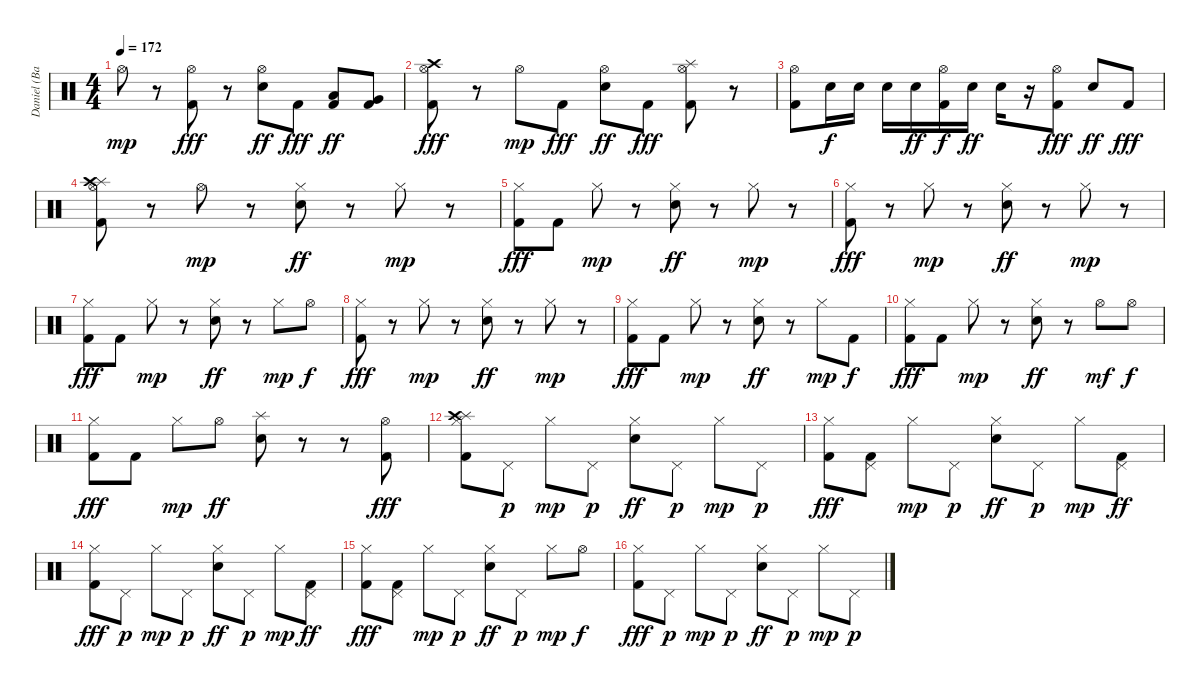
\track ("Daniel (Bateria)" "Daniel (Ba") {instrument percussion}
\staff {score}
\articulation defaults
\ts (4 4)
\tempo 172
\clef neutral
\ks c "Hi-Hat (open)".8{dy mp}
r.8 ("Hi-Hat (open)" "Kick (hit) 2").8{dy fff} r.8 ("Hi-Hat (open)" "Electric Snare (hit)").8{dy ff} "Kick (hit) 2".8{dy fff} ("Low Tom (hit)" "Kick (hit) 2").8{dy ff} ("Very Low Tom (hit)" "Kick (hit) 2").8 |
("Hi-Hat (open)" "Crash high (hit)" "Kick (hit) 2").8{dy fff} r.8 "Hi-Hat (open)".8{dy mp} "Kick (hit) 2".8{dy fff} ("Hi-Hat (open)" "Electric Snare (hit)").8{dy ff} "Kick (hit) 2".8{dy fff} ("Splash (hit)" "Hi-Hat (open)" "Kick (hit) 2").8 r.8 |
("Hi-Hat (open)" "Kick (hit) 2").8 "Electric Snare (hit)".16{dy f} "Electric Snare (hit)".16 "Electric Snare (hit)".16 "Electric Snare (hit)".16{dy ff} ("Hi-Hat (open)" "Kick (hit) 2").16{dy f} "Electric Snare (hit)".16{dy ff} "Electric Snare (hit)".16 r.16 ("Hi-Hat (open)" "Kick (hit) 2").8{dy fff} "Electric Snare (hit)".8{dy ff} "Kick (hit) 2".8{dy fff} |
("Splash (hit)" "Hi-Hat (open)" "Crash high (hit)" "Kick (hit) 2").8 r.8 "Hi-Hat (open)".8{dy mp} r.8 ("Hi-Hat (closed)" "Electric Snare (hit)").8{dy ff} r.8 "Hi-Hat (closed)".8{dy mp} r.8 |
("Hi-Hat (closed)" "Kick (hit) 2").8{dy fff} "Kick (hit) 2".8 "Hi-Hat (closed)".8{dy mp} r.8 ("Hi-Hat (closed)" "Electric Snare (hit)").8{dy ff} r.8 "Hi-Hat (closed)".8{dy mp} r.8 |
("Hi-Hat (closed)" "Kick (hit) 2").8{dy fff} r.8 "Hi-Hat (closed)".8{dy mp} r.8 ("Hi-Hat (closed)" "Electric Snare (hit)").8{dy ff} r.8 "Hi-Hat (closed)".8{dy mp} r.8 |
("Hi-Hat (closed)" "Kick (hit) 2").8{dy fff} "Kick (hit) 2".8 "Hi-Hat (closed)".8{dy mp} r.8 ("Hi-Hat (closed)" "Electric Snare (hit)").8{dy ff} r.8 "Hi-Hat (closed)".8{dy mp} "Hi-Hat (open)".8{dy f} |
("Hi-Hat (closed)" "Kick (hit) 2").8{dy fff} r.8 "Hi-Hat (closed)".8{dy mp} r.8 ("Hi-Hat (closed)" "Electric Snare (hit)").8{dy ff} r.8 "Hi-Hat (closed)".8{dy mp} r.8 |
("Hi-Hat (closed)" "Kick (hit) 2").8{dy fff} "Kick (hit) 2".8 "Hi-Hat (closed)".8{dy mp} r.8 ("Hi-Hat (closed)" "Electric Snare (hit)").8{dy ff} r.8 "Hi-Hat (closed)".8{dy mp} "Kick (hit) 2".8{dy f} |
("Hi-Hat (closed)" "Kick (hit) 2").8{dy fff} "Kick (hit) 2".8 "Hi-Hat (closed)".8{dy mp} r.8 ("Hi-Hat (closed)" "Electric Snare (hit)").8{dy ff} r.8 "Hi-Hat (open)".8{dy mf} "Hi-Hat (open)".8{dy f} |
("Hi-Hat (closed)" "Kick (hit) 2").8{dy fff} "Kick (hit) 2".8 "Hi-Hat (closed)".8{dy mp} "Hi-Hat (open)".8{dy ff} ("Splash (hit)" "Electric Snare (hit)").8 r.8 r.8 ("Hi-Hat (open)" "Kick (hit) 2").8{dy fff} |
("Splash (hit)" "Hi-Hat (closed)" "Crash high (hit)" "Kick (hit) 2").8 "Pedal Hi-Hat (hit)".8{dy p} "Hi-Hat (closed)".8{dy mp} "Pedal Hi-Hat (hit)".8{dy p} ("Hi-Hat (closed)" "Electric Snare (hit)").8{dy ff} "Pedal Hi-Hat (hit)".8{dy p} "Hi-Hat (closed)".8{dy mp} "Pedal Hi-Hat (hit)".8{dy p} |
("Hi-Hat (closed)" "Kick (hit) 2").8{dy fff} ("Pedal Hi-Hat (hit)" "Kick (hit) 2").8 "Hi-Hat (closed)".8{dy mp} "Pedal Hi-Hat (hit)".8{dy p} ("Hi-Hat (closed)" "Electric Snare (hit)").8{dy ff} "Pedal Hi-Hat (hit)".8{dy p} "Hi-Hat (closed)".8{dy mp} ("Pedal Hi-Hat (hit)" "Kick (hit) 2").8{dy ff} |
("Hi-Hat (closed)" "Kick (hit) 2").8{dy fff} "Pedal Hi-Hat (hit)".8{dy p} "Hi-Hat (closed)".8{dy mp} "Pedal Hi-Hat (hit)".8{dy p} ("Hi-Hat (closed)" "Electric Snare (hit)").8{dy ff} "Pedal Hi-Hat (hit)".8{dy p} "Hi-Hat (closed)".8{dy mp} ("Pedal Hi-Hat (hit)" "Kick (hit) 2").8{dy ff} |
("Hi-Hat (closed)" "Kick (hit) 2").8{dy fff} ("Pedal Hi-Hat (hit)" "Kick (hit) 2").8 "Hi-Hat (closed)".8{dy mp} "Pedal Hi-Hat (hit)".8{dy p} ("Hi-Hat (closed)" "Electric Snare (hit)").8{dy ff} "Pedal Hi-Hat (hit)".8{dy p} "Hi-Hat (closed)".8{dy mp} "Hi-Hat (open)".8{dy f} |
("Hi-Hat (closed)" "Kick (hit) 2").8{dy fff} "Pedal Hi-Hat (hit)".8{dy p} "Hi-Hat (closed)".8{dy mp} "Pedal Hi-Hat (hit)".8{dy p} ("Hi-Hat (closed)" "Electric Snare (hit)").8{dy ff} "Pedal Hi-Hat (hit)".8{dy p} "Hi-Hat (closed)".8{dy mp} "Pedal Hi-Hat (hit)".8{dy p}
